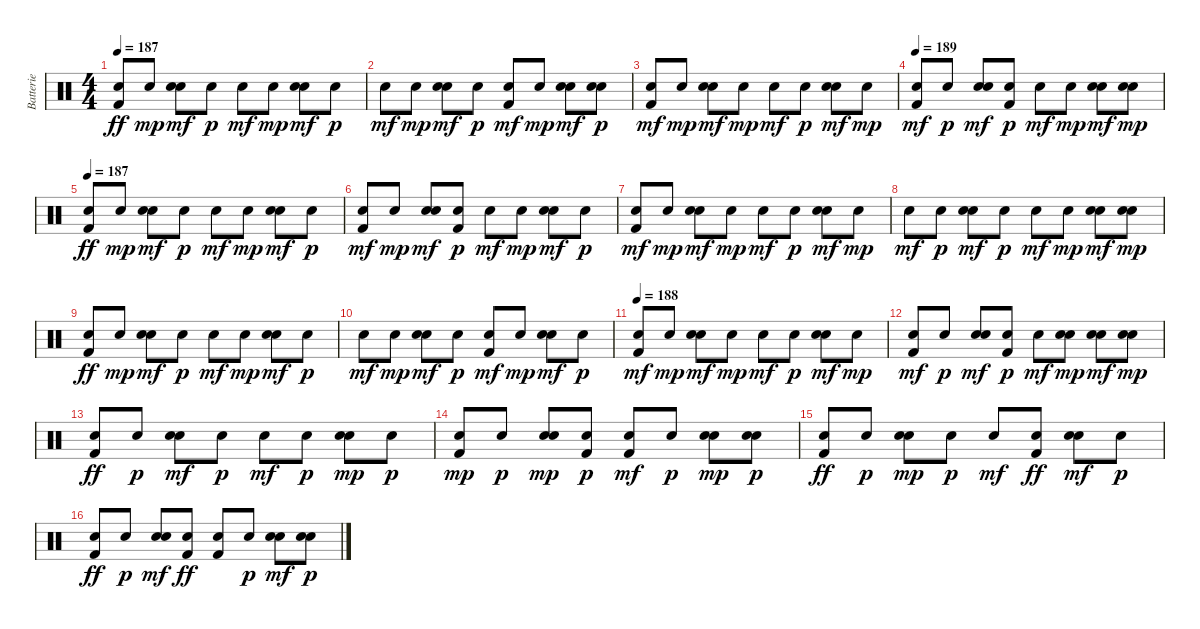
\track ("Batterie            " "Batterie  ") {instrument percussion}
\staff {score}
\articulation defaults
\ts (4 4)
\tempo 187
\clef neutral
\ks c
("Kick (hit) 2" "Snare (hit) 2").8{dy ff} "Snare (hit) 2".8{dy mp} ("Hand Clap (hit)" "Snare (hit) 2").8{dy mf} "Snare (hit) 2".8{dy p} "Snare (hit) 2".8{dy mf} "Snare (hit) 2".8{dy mp} ("Hand Clap (hit)" "Snare (hit) 2").8{dy mf} "Snare (hit) 2".8{dy p} |
"Snare (hit) 2".8{dy mf} "Snare (hit) 2".8{dy mp} ("Hand Clap (hit)" "Snare (hit) 2").8{dy mf} "Snare (hit) 2".8{dy p} ("Kick (hit) 2" "Snare (hit) 2").8{dy mf} "Snare (hit) 2".8{dy mp} ("Hand Clap (hit)" "Snare (hit) 2").8{dy mf} ("Hand Clap (hit)" "Snare (hit) 2").8{dy p} |
("Kick (hit) 2" "Snare (hit) 2").8{dy mf} "Snare (hit) 2".8{dy mp} ("Hand Clap (hit)" "Snare (hit) 2").8{dy mf} "Snare (hit) 2".8{dy mp} "Snare (hit) 2".8{dy mf} "Snare (hit) 2".8{dy p} ("Hand Clap (hit)" "Snare (hit) 2").8{dy mf} "Snare (hit) 2".8{dy mp} |
\tempo 189
("Kick (hit) 2" "Snare (hit) 2").8{dy mf} "Snare (hit) 2".8{dy p} ("Hand Clap (hit)" "Snare (hit) 2").8{dy mf} ("Kick (hit) 2" "Snare (hit) 2").8{dy p} "Snare (hit) 2".8{dy mf} "Snare (hit) 2".8{dy mp} ("Hand Clap (hit)" "Snare (hit) 2").8{dy mf} ("Hand Clap (hit)" "Snare (hit) 2").8{dy mp} |
\tempo 187
("Kick (hit) 2" "Snare (hit) 2").8{dy ff} "Snare (hit) 2".8{dy mp} ("Hand Clap (hit)" "Snare (hit) 2").8{dy mf} "Snare (hit) 2".8{dy p} "Snare (hit) 2".8{dy mf} "Snare (hit) 2".8{dy mp} ("Hand Clap (hit)" "Snare (hit) 2").8{dy mf} "Snare (hit) 2".8{dy p} |
("Kick (hit) 2" "Snare (hit) 2").8{dy mf} "Snare (hit) 2".8{dy mp} ("Hand Clap (hit)" "Snare (hit) 2").8{dy mf} ("Kick (hit) 2" "Snare (hit) 2").8{dy p} "Snare (hit) 2".8{dy mf} "Snare (hit) 2".8{dy mp} ("Hand Clap (hit)" "Snare (hit) 2").8{dy mf} "Snare (hit) 2".8{dy p} |
("Kick (hit) 2" "Snare (hit) 2").8{dy mf} "Snare (hit) 2".8{dy mp} ("Hand Clap (hit)" "Snare (hit) 2").8{dy mf} "Snare (hit) 2".8{dy mp} "Snare (hit) 2".8{dy mf} "Snare (hit) 2".8{dy p} ("Hand Clap (hit)" "Snare (hit) 2").8{dy mf} "Snare (hit) 2".8{dy mp} |
"Snare (hit) 2".8{dy mf} "Snare (hit) 2".8{dy p} ("Hand Clap (hit)" "Snare (hit) 2").8{dy mf} "Snare (hit) 2".8{dy p} "Snare (hit) 2".8{dy mf} "Snare (hit) 2".8{dy mp} ("Hand Clap (hit)" "Snare (hit) 2").8{dy mf} ("Hand Clap (hit)" "Snare (hit) 2").8{dy mp} |
("Kick (hit) 2" "Snare (hit) 2").8{dy ff} "Snare (hit) 2".8{dy mp} ("Hand Clap (hit)" "Snare (hit) 2").8{dy mf} "Snare (hit) 2".8{dy p} "Snare (hit) 2".8{dy mf} "Snare (hit) 2".8{dy mp} ("Hand Clap (hit)" "Snare (hit) 2").8{dy mf} "Snare (hit) 2".8{dy p} |
"Snare (hit) 2".8{dy mf} "Snare (hit) 2".8{dy mp} ("Hand Clap (hit)" "Snare (hit) 2").8{dy mf} "Snare (hit) 2".8{dy p} ("Kick (hit) 2" "Snare (hit) 2").8{dy mf} "Snare (hit) 2".8{dy mp} ("Hand Clap (hit)" "Snare (hit) 2").8{dy mf} "Snare (hit) 2".8{dy p} |
\tempo 188
("Kick (hit) 2" "Snare (hit) 2").8{dy mf} "Snare (hit) 2".8{dy mp} ("Hand Clap (hit)" "Snare (hit) 2").8{dy mf} "Snare (hit) 2".8{dy mp} "Snare (hit) 2".8{dy mf} "Snare (hit) 2".8{dy p} ("Hand Clap (hit)" "Snare (hit) 2").8{dy mf} "Snare (hit) 2".8{dy mp} |
("Kick (hit) 2" "Snare (hit) 2").8{dy mf} "Snare (hit) 2".8{dy p} ("Hand Clap (hit)" "Snare (hit) 2").8{dy mf} ("Kick (hit) 2" "Snare (hit) 2").8{dy p} "Snare (hit) 2".8{dy mf} ("Hand Clap (hit)" "Snare (hit) 2").8{dy mp} ("Hand Clap (hit)" "Snare (hit) 2").8{dy mf} ("Hand Clap (hit)" "Snare (hit) 2").8{dy mp} |
("Snare (hit) 2" "Kick (hit) 2").8{dy ff} "Snare (hit) 2".8{dy p} ("Hand Clap (hit)" "Snare (hit) 2").8{dy mf} "Snare (hit) 2".8{dy p} "Snare (hit) 2".8{dy mf} "Snare (hit) 2".8{dy p} ("Hand Clap (hit)" "Snare (hit) 2").8{dy mp} "Snare (hit) 2".8{dy p} |
("Snare (hit) 2" "Kick (hit) 2").8{dy mp} "Snare (hit) 2".8{dy p} ("Hand Clap (hit)" "Snare (hit) 2").8{dy mp} ("Snare (hit) 2" "Kick (hit) 2").8{dy p} ("Snare (hit) 2" "Kick (hit) 2").8{dy mf} "Snare (hit) 2".8{dy p} ("Hand Clap (hit)" "Snare (hit) 2").8{dy mp} ("Hand Clap (hit)" "Snare (hit) 2").8{dy p} |
("Snare (hit) 2" "Kick (hit) 2").8{dy ff} "Snare (hit) 2".8{dy p} ("Hand Clap (hit)" "Snare (hit) 2").8{dy mp} "Snare (hit) 2".8{dy p} "Snare (hit) 2".8{dy mf} ("Snare (hit) 2" "Kick (hit) 2").8{dy ff} ("Hand Clap (hit)" "Snare (hit) 2").8{dy mf} "Snare (hit) 2".8{dy p} |
("Snare (hit) 2" "Kick (hit) 2").8{dy ff} "Snare (hit) 2".8{dy p} ("Hand Clap (hit)" "Snare (hit) 2").8{dy mf} ("Snare (hit) 2" "Kick (hit) 2").8{dy ff} ("Snare (hit) 2" "Kick (hit) 2").8 "Snare (hit) 2".8{dy p} ("Hand Clap (hit)" "Snare (hit) 2").8{dy mf} ("Hand Clap (hit)" "Snare (hit) 2").8{dy p}
